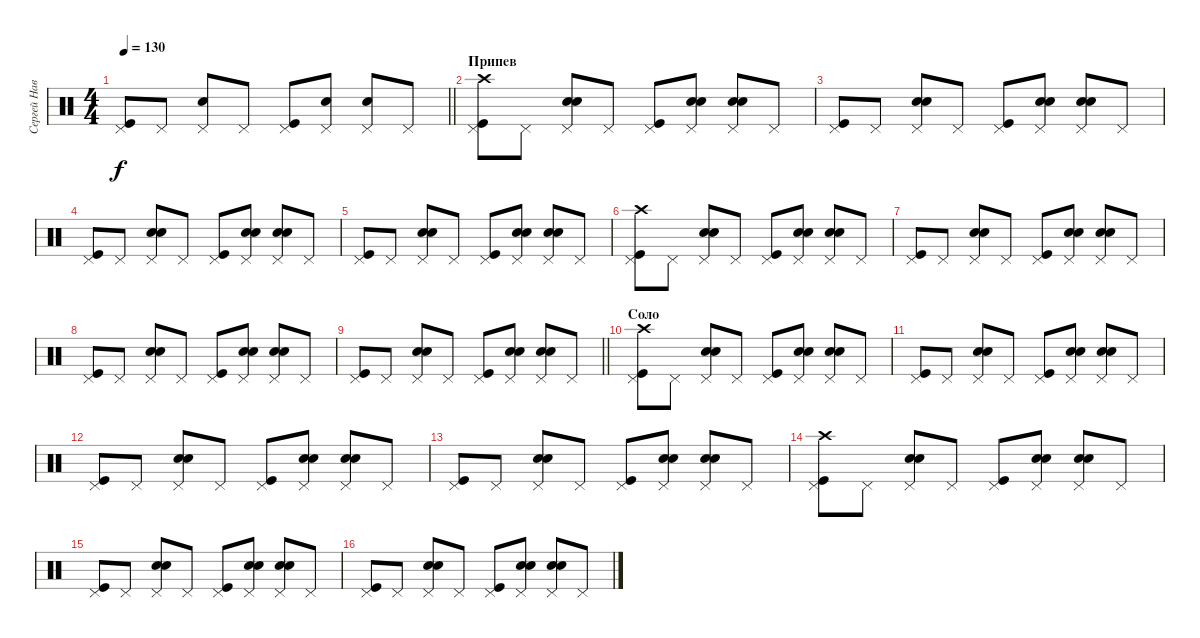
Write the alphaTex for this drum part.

\track ("Сергей Наветный (ударные)" "Сергей Нав") {instrument percussion}
\staff {score}
\articulation defaults
\ts (4 4)
\tempo 130
\clef neutral
\barLineRight lightlight
\ks c
("Pedal Hi-Hat (hit)" "Kick (hit)").8{dy f} "Pedal Hi-Hat (hit)".8 ("Pedal Hi-Hat (hit)" "Snare (hit) 2").8 "Pedal Hi-Hat (hit)".8 ("Kick (hit)" "Pedal Hi-Hat (hit)").8 ("Snare (hit) 2" "Pedal Hi-Hat (hit)").8 ("Snare (hit) 2" "Pedal Hi-Hat (hit)").8 "Pedal Hi-Hat (hit)".8 |
\section ("" "Припев")
("Crash high (hit)" "Kick (hit)" "Pedal Hi-Hat (hit)").8 "Pedal Hi-Hat (hit)".8 ("Hand Clap (hit)" "Snare (hit) 2" "Pedal Hi-Hat (hit)").8 "Pedal Hi-Hat (hit)".8 ("Kick (hit)" "Pedal Hi-Hat (hit)").8 ("Hand Clap (hit)" "Snare (hit) 2" "Pedal Hi-Hat (hit)").8 ("Hand Clap (hit)" "Snare (hit) 2" "Pedal Hi-Hat (hit)").8 "Pedal Hi-Hat (hit)".8 |
("Kick (hit)" "Pedal Hi-Hat (hit)").8 "Pedal Hi-Hat (hit)".8 ("Hand Clap (hit)" "Snare (hit) 2" "Pedal Hi-Hat (hit)").8 "Pedal Hi-Hat (hit)".8 ("Kick (hit)" "Pedal Hi-Hat (hit)").8 ("Hand Clap (hit)" "Snare (hit) 2" "Pedal Hi-Hat (hit)").8 ("Hand Clap (hit)" "Snare (hit) 2" "Pedal Hi-Hat (hit)").8 "Pedal Hi-Hat (hit)".8 |
("Kick (hit)" "Pedal Hi-Hat (hit)").8 "Pedal Hi-Hat (hit)".8 ("Hand Clap (hit)" "Snare (hit) 2" "Pedal Hi-Hat (hit)").8 "Pedal Hi-Hat (hit)".8 ("Kick (hit)" "Pedal Hi-Hat (hit)").8 ("Hand Clap (hit)" "Snare (hit) 2" "Pedal Hi-Hat (hit)").8 ("Hand Clap (hit)" "Snare (hit) 2" "Pedal Hi-Hat (hit)").8 "Pedal Hi-Hat (hit)".8 |
("Kick (hit)" "Pedal Hi-Hat (hit)").8 "Pedal Hi-Hat (hit)".8 ("Hand Clap (hit)" "Snare (hit) 2" "Pedal Hi-Hat (hit)").8 "Pedal Hi-Hat (hit)".8 ("Kick (hit)" "Pedal Hi-Hat (hit)").8 ("Hand Clap (hit)" "Snare (hit) 2" "Pedal Hi-Hat (hit)").8 ("Hand Clap (hit)" "Snare (hit) 2" "Pedal Hi-Hat (hit)").8 "Pedal Hi-Hat (hit)".8 |
("Crash high (hit)" "Kick (hit)" "Pedal Hi-Hat (hit)").8 "Pedal Hi-Hat (hit)".8 ("Hand Clap (hit)" "Snare (hit) 2" "Pedal Hi-Hat (hit)").8 "Pedal Hi-Hat (hit)".8 ("Kick (hit)" "Pedal Hi-Hat (hit)").8 ("Hand Clap (hit)" "Snare (hit) 2" "Pedal Hi-Hat (hit)").8 ("Hand Clap (hit)" "Snare (hit) 2" "Pedal Hi-Hat (hit)").8 "Pedal Hi-Hat (hit)".8 |
("Kick (hit)" "Pedal Hi-Hat (hit)").8 "Pedal Hi-Hat (hit)".8 ("Hand Clap (hit)" "Snare (hit) 2" "Pedal Hi-Hat (hit)").8 "Pedal Hi-Hat (hit)".8 ("Kick (hit)" "Pedal Hi-Hat (hit)").8 ("Hand Clap (hit)" "Snare (hit) 2" "Pedal Hi-Hat (hit)").8 ("Hand Clap (hit)" "Snare (hit) 2" "Pedal Hi-Hat (hit)").8 "Pedal Hi-Hat (hit)".8 |
("Kick (hit)" "Pedal Hi-Hat (hit)").8 "Pedal Hi-Hat (hit)".8 ("Hand Clap (hit)" "Snare (hit) 2" "Pedal Hi-Hat (hit)").8 "Pedal Hi-Hat (hit)".8 ("Kick (hit)" "Pedal Hi-Hat (hit)").8 ("Hand Clap (hit)" "Snare (hit) 2" "Pedal Hi-Hat (hit)").8 ("Hand Clap (hit)" "Snare (hit) 2" "Pedal Hi-Hat (hit)").8 "Pedal Hi-Hat (hit)".8 |
\barLineRight lightlight
("Kick (hit)" "Pedal Hi-Hat (hit)").8 "Pedal Hi-Hat (hit)".8 ("Hand Clap (hit)" "Snare (hit) 2" "Pedal Hi-Hat (hit)").8 "Pedal Hi-Hat (hit)".8 ("Kick (hit)" "Pedal Hi-Hat (hit)").8 ("Hand Clap (hit)" "Snare (hit) 2" "Pedal Hi-Hat (hit)").8 ("Hand Clap (hit)" "Snare (hit) 2" "Pedal Hi-Hat (hit)").8 "Pedal Hi-Hat (hit)".8 |
\section ("" "Соло")
("Crash high (hit)" "Kick (hit)" "Pedal Hi-Hat (hit)").8 "Pedal Hi-Hat (hit)".8 ("Hand Clap (hit)" "Snare (hit) 2" "Pedal Hi-Hat (hit)").8 "Pedal Hi-Hat (hit)".8 ("Kick (hit)" "Pedal Hi-Hat (hit)").8 ("Hand Clap (hit)" "Snare (hit) 2" "Pedal Hi-Hat (hit)").8 ("Hand Clap (hit)" "Snare (hit) 2" "Pedal Hi-Hat (hit)").8 "Pedal Hi-Hat (hit)".8 |
("Kick (hit)" "Pedal Hi-Hat (hit)").8 "Pedal Hi-Hat (hit)".8 ("Hand Clap (hit)" "Snare (hit) 2" "Pedal Hi-Hat (hit)").8 "Pedal Hi-Hat (hit)".8 ("Kick (hit)" "Pedal Hi-Hat (hit)").8 ("Hand Clap (hit)" "Snare (hit) 2" "Pedal Hi-Hat (hit)").8 ("Hand Clap (hit)" "Snare (hit) 2" "Pedal Hi-Hat (hit)").8 "Pedal Hi-Hat (hit)".8 |
("Kick (hit)" "Pedal Hi-Hat (hit)").8 "Pedal Hi-Hat (hit)".8 ("Hand Clap (hit)" "Snare (hit) 2" "Pedal Hi-Hat (hit)").8 "Pedal Hi-Hat (hit)".8 ("Kick (hit)" "Pedal Hi-Hat (hit)").8 ("Hand Clap (hit)" "Snare (hit) 2" "Pedal Hi-Hat (hit)").8 ("Hand Clap (hit)" "Snare (hit) 2" "Pedal Hi-Hat (hit)").8 "Pedal Hi-Hat (hit)".8 |
("Kick (hit)" "Pedal Hi-Hat (hit)").8 "Pedal Hi-Hat (hit)".8 ("Hand Clap (hit)" "Snare (hit) 2" "Pedal Hi-Hat (hit)").8 "Pedal Hi-Hat (hit)".8 ("Kick (hit)" "Pedal Hi-Hat (hit)").8 ("Hand Clap (hit)" "Snare (hit) 2" "Pedal Hi-Hat (hit)").8 ("Hand Clap (hit)" "Snare (hit) 2" "Pedal Hi-Hat (hit)").8 "Pedal Hi-Hat (hit)".8 |
("Crash high (hit)" "Kick (hit)" "Pedal Hi-Hat (hit)").8 "Pedal Hi-Hat (hit)".8 ("Hand Clap (hit)" "Snare (hit) 2" "Pedal Hi-Hat (hit)").8 "Pedal Hi-Hat (hit)".8 ("Kick (hit)" "Pedal Hi-Hat (hit)").8 ("Hand Clap (hit)" "Snare (hit) 2" "Pedal Hi-Hat (hit)").8 ("Hand Clap (hit)" "Snare (hit) 2" "Pedal Hi-Hat (hit)").8 "Pedal Hi-Hat (hit)".8 |
("Kick (hit)" "Pedal Hi-Hat (hit)").8 "Pedal Hi-Hat (hit)".8 ("Hand Clap (hit)" "Snare (hit) 2" "Pedal Hi-Hat (hit)").8 "Pedal Hi-Hat (hit)".8 ("Kick (hit)" "Pedal Hi-Hat (hit)").8 ("Hand Clap (hit)" "Snare (hit) 2" "Pedal Hi-Hat (hit)").8 ("Hand Clap (hit)" "Snare (hit) 2" "Pedal Hi-Hat (hit)").8 "Pedal Hi-Hat (hit)".8 |
("Kick (hit)" "Pedal Hi-Hat (hit)").8 "Pedal Hi-Hat (hit)".8 ("Hand Clap (hit)" "Snare (hit) 2" "Pedal Hi-Hat (hit)").8 "Pedal Hi-Hat (hit)".8 ("Kick (hit)" "Pedal Hi-Hat (hit)").8 ("Hand Clap (hit)" "Snare (hit) 2" "Pedal Hi-Hat (hit)").8 ("Hand Clap (hit)" "Snare (hit) 2" "Pedal Hi-Hat (hit)").8 "Pedal Hi-Hat (hit)".8
